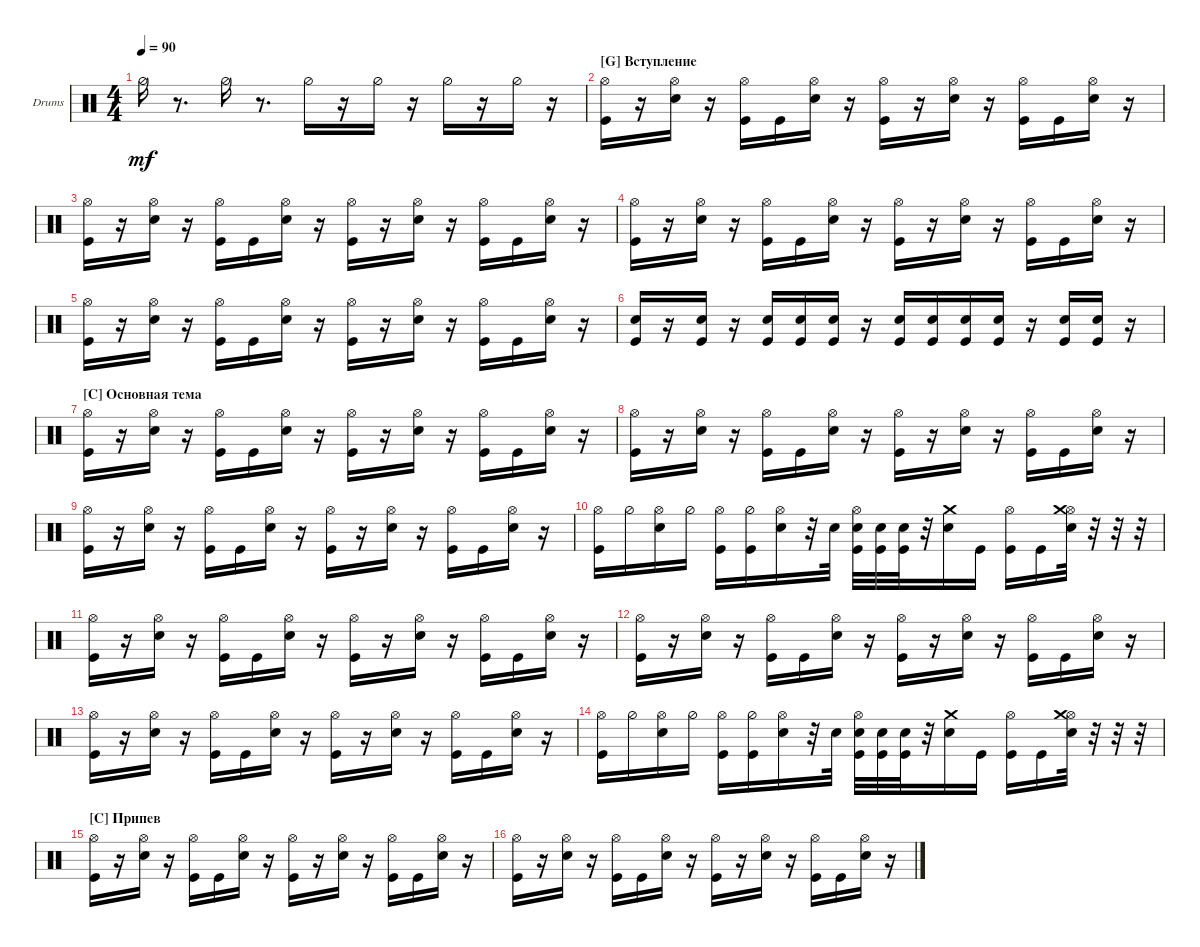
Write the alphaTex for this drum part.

\bracketExtendMode groupsimilarinstruments
\firstSystemTrackNameOrientation horizontal
\otherSystemsTrackNameOrientation horizontal
\track ("Drumkit" "Drums") {instrument percussion}
\staff {score}
\articulation defaults
\ts (4 4)
\tempo 90
\clef neutral
\ks c "Hi-Hat (half)".16{dy mf}
r.8{d} "Hi-Hat (half)".16 r.8{d} "Hi-Hat (half)".16 r.16 "Hi-Hat (half)".16 r.16 "Hi-Hat (half)".16 r.16 "Hi-Hat (half)".16 r.16 |
\section ("G" "Вступление")
("Hi-Hat (open)" "Kick (hit)").16 r.16 ("Hi-Hat (open)" "Snare (hit) 2").16 r.16 ("Hi-Hat (open)" "Kick (hit)").16 "Kick (hit)".16 ("Hi-Hat (open)" "Snare (hit) 2").16 r.16 ("Hi-Hat (open)" "Kick (hit)").16 r.16 ("Hi-Hat (open)" "Snare (hit) 2").16 r.16 ("Hi-Hat (open)" "Kick (hit)").16 "Kick (hit)".16 ("Hi-Hat (open)" "Snare (hit) 2").16 r.16 |
("Hi-Hat (open)" "Kick (hit)").16 r.16 ("Hi-Hat (open)" "Snare (hit) 2").16 r.16 ("Hi-Hat (open)" "Kick (hit)").16 "Kick (hit)".16 ("Hi-Hat (open)" "Snare (hit) 2").16 r.16 ("Hi-Hat (open)" "Kick (hit)").16 r.16 ("Hi-Hat (open)" "Snare (hit) 2").16 r.16 ("Hi-Hat (open)" "Kick (hit)").16 "Kick (hit)".16 ("Hi-Hat (open)" "Snare (hit) 2").16 r.16 |
("Hi-Hat (open)" "Kick (hit)").16 r.16 ("Hi-Hat (open)" "Snare (hit) 2").16 r.16 ("Hi-Hat (open)" "Kick (hit)").16 "Kick (hit)".16 ("Hi-Hat (open)" "Snare (hit) 2").16 r.16 ("Hi-Hat (open)" "Kick (hit)").16 r.16 ("Hi-Hat (open)" "Snare (hit) 2").16 r.16 ("Hi-Hat (open)" "Kick (hit)").16 "Kick (hit)".16 ("Hi-Hat (open)" "Snare (hit) 2").16 r.16 |
("Hi-Hat (open)" "Kick (hit)").16 r.16 ("Hi-Hat (open)" "Snare (hit) 2").16 r.16 ("Hi-Hat (open)" "Kick (hit)").16 "Kick (hit)".16 ("Hi-Hat (open)" "Snare (hit) 2").16 r.16 ("Hi-Hat (open)" "Kick (hit)").16 r.16 ("Hi-Hat (open)" "Snare (hit) 2").16 r.16 ("Hi-Hat (open)" "Kick (hit)").16 "Kick (hit)".16 ("Hi-Hat (open)" "Snare (hit) 2").16 r.16 |
("Kick (hit)" "Snare (hit) 2").16 r.16 ("Kick (hit)" "Snare (hit) 2").16 r.16 ("Kick (hit)" "Snare (hit) 2").16 ("Kick (hit)" "Snare (hit) 2").16 ("Kick (hit)" "Snare (hit) 2").16 r.16 ("Kick (hit)" "Snare (hit) 2").16 ("Kick (hit)" "Snare (hit) 2").16 ("Kick (hit)" "Snare (hit) 2").16 ("Kick (hit)" "Snare (hit) 2").16 r.16 ("Kick (hit)" "Snare (hit) 2").16 ("Kick (hit)" "Snare (hit) 2").16 r.16 |
\section ("C" "Основная тема")
("Hi-Hat (open)" "Kick (hit)").16 r.16 ("Hi-Hat (open)" "Snare (hit) 2").16 r.16 ("Hi-Hat (open)" "Kick (hit)").16 "Kick (hit)".16 ("Hi-Hat (open)" "Snare (hit) 2").16 r.16 ("Hi-Hat (open)" "Kick (hit)").16 r.16 ("Hi-Hat (open)" "Snare (hit) 2").16 r.16 ("Hi-Hat (open)" "Kick (hit)").16 "Kick (hit)".16 ("Hi-Hat (open)" "Snare (hit) 2").16 r.16 |
("Hi-Hat (open)" "Kick (hit)").16 r.16 ("Hi-Hat (open)" "Snare (hit) 2").16 r.16 ("Hi-Hat (open)" "Kick (hit)").16 "Kick (hit)".16 ("Hi-Hat (open)" "Snare (hit) 2").16 r.16 ("Hi-Hat (open)" "Kick (hit)").16 r.16 ("Hi-Hat (open)" "Snare (hit) 2").16 r.16 ("Hi-Hat (open)" "Kick (hit)").16 "Kick (hit)".16 ("Hi-Hat (open)" "Snare (hit) 2").16 r.16 |
("Hi-Hat (open)" "Kick (hit)").16 r.16 ("Hi-Hat (open)" "Snare (hit) 2").16 r.16 ("Hi-Hat (open)" "Kick (hit)").16 "Kick (hit)".16 ("Hi-Hat (open)" "Snare (hit) 2").16 r.16 ("Hi-Hat (open)" "Kick (hit)").16 r.16 ("Hi-Hat (open)" "Snare (hit) 2").16 r.16 ("Hi-Hat (open)" "Kick (hit)").16 "Kick (hit)".16 ("Hi-Hat (open)" "Snare (hit) 2").16 r.16 |
("Hi-Hat (open)" "Kick (hit)").16 "Hi-Hat (half)".16 ("Hi-Hat (open)" "Snare (hit) 2").16 "Hi-Hat (half)".16 ("Hi-Hat (open)" "Kick (hit)").16 ("Kick (hit)" "Hi-Hat (half)").16 ("Hi-Hat (open)" "Snare (hit) 2").16 r.32 "Snare (hit) 2".32 ("Hi-Hat (open)" "Snare (hit) 2" "Kick (hit)").32 ("Kick (hit)" "Snare (hit) 2").32 ("Kick (hit)" "Snare (hit) 2").32 r.32 ("Crash medium (hit)" "Snare (hit) 2").16 "Kick (hit)".16 ("Hi-Hat (open)" "Kick (hit)").16 "Kick (hit)".16 ("Hi-Hat (open)" "Crash medium (hit)" "Snare (hit) 2").32 r.32 r.32 r.32 |
("Hi-Hat (open)" "Kick (hit)").16 r.16 ("Hi-Hat (open)" "Snare (hit) 2").16 r.16 ("Hi-Hat (open)" "Kick (hit)").16 "Kick (hit)".16 ("Hi-Hat (open)" "Snare (hit) 2").16 r.16 ("Hi-Hat (open)" "Kick (hit)").16 r.16 ("Hi-Hat (open)" "Snare (hit) 2").16 r.16 ("Hi-Hat (open)" "Kick (hit)").16 "Kick (hit)".16 ("Hi-Hat (open)" "Snare (hit) 2").16 r.16 |
("Hi-Hat (open)" "Kick (hit)").16 r.16 ("Hi-Hat (open)" "Snare (hit) 2").16 r.16 ("Hi-Hat (open)" "Kick (hit)").16 "Kick (hit)".16 ("Hi-Hat (open)" "Snare (hit) 2").16 r.16 ("Hi-Hat (open)" "Kick (hit)").16 r.16 ("Hi-Hat (open)" "Snare (hit) 2").16 r.16 ("Hi-Hat (open)" "Kick (hit)").16 "Kick (hit)".16 ("Hi-Hat (open)" "Snare (hit) 2").16 r.16 |
("Hi-Hat (open)" "Kick (hit)").16 r.16 ("Hi-Hat (open)" "Snare (hit) 2").16 r.16 ("Hi-Hat (open)" "Kick (hit)").16 "Kick (hit)".16 ("Hi-Hat (open)" "Snare (hit) 2").16 r.16 ("Hi-Hat (open)" "Kick (hit)").16 r.16 ("Hi-Hat (open)" "Snare (hit) 2").16 r.16 ("Hi-Hat (open)" "Kick (hit)").16 "Kick (hit)".16 ("Hi-Hat (open)" "Snare (hit) 2").16 r.16 |
("Hi-Hat (open)" "Kick (hit)").16 "Hi-Hat (half)".16 ("Hi-Hat (open)" "Snare (hit) 2").16 "Hi-Hat (half)".16 ("Hi-Hat (open)" "Kick (hit)").16 ("Kick (hit)" "Hi-Hat (half)").16 ("Hi-Hat (open)" "Snare (hit) 2").16 r.32 "Snare (hit) 2".32 ("Hi-Hat (open)" "Snare (hit) 2" "Kick (hit)").32 ("Kick (hit)" "Snare (hit) 2").32 ("Kick (hit)" "Snare (hit) 2").32 r.32 ("Crash medium (hit)" "Snare (hit) 2").16 "Kick (hit)".16 ("Hi-Hat (open)" "Kick (hit)").16 "Kick (hit)".16 ("Hi-Hat (open)" "Crash medium (hit)" "Snare (hit) 2").32 r.32 r.32 r.32 |
\section ("C" "Припев")
("Hi-Hat (open)" "Kick (hit)").16 r.16 ("Hi-Hat (open)" "Snare (hit) 2").16 r.16 ("Hi-Hat (open)" "Kick (hit)").16 "Kick (hit)".16 ("Hi-Hat (open)" "Snare (hit) 2").16 r.16 ("Hi-Hat (open)" "Kick (hit)").16 r.16 ("Hi-Hat (open)" "Snare (hit) 2").16 r.16 ("Hi-Hat (open)" "Kick (hit)").16 "Kick (hit)".16 ("Hi-Hat (open)" "Snare (hit) 2").16 r.16 |
("Hi-Hat (open)" "Kick (hit)").16 r.16 ("Hi-Hat (open)" "Snare (hit) 2").16 r.16 ("Hi-Hat (open)" "Kick (hit)").16 "Kick (hit)".16 ("Hi-Hat (open)" "Snare (hit) 2").16 r.16 ("Hi-Hat (open)" "Kick (hit)").16 r.16 ("Hi-Hat (open)" "Snare (hit) 2").16 r.16 ("Hi-Hat (open)" "Kick (hit)").16 "Kick (hit)".16 ("Hi-Hat (open)" "Snare (hit) 2").16 r.16
